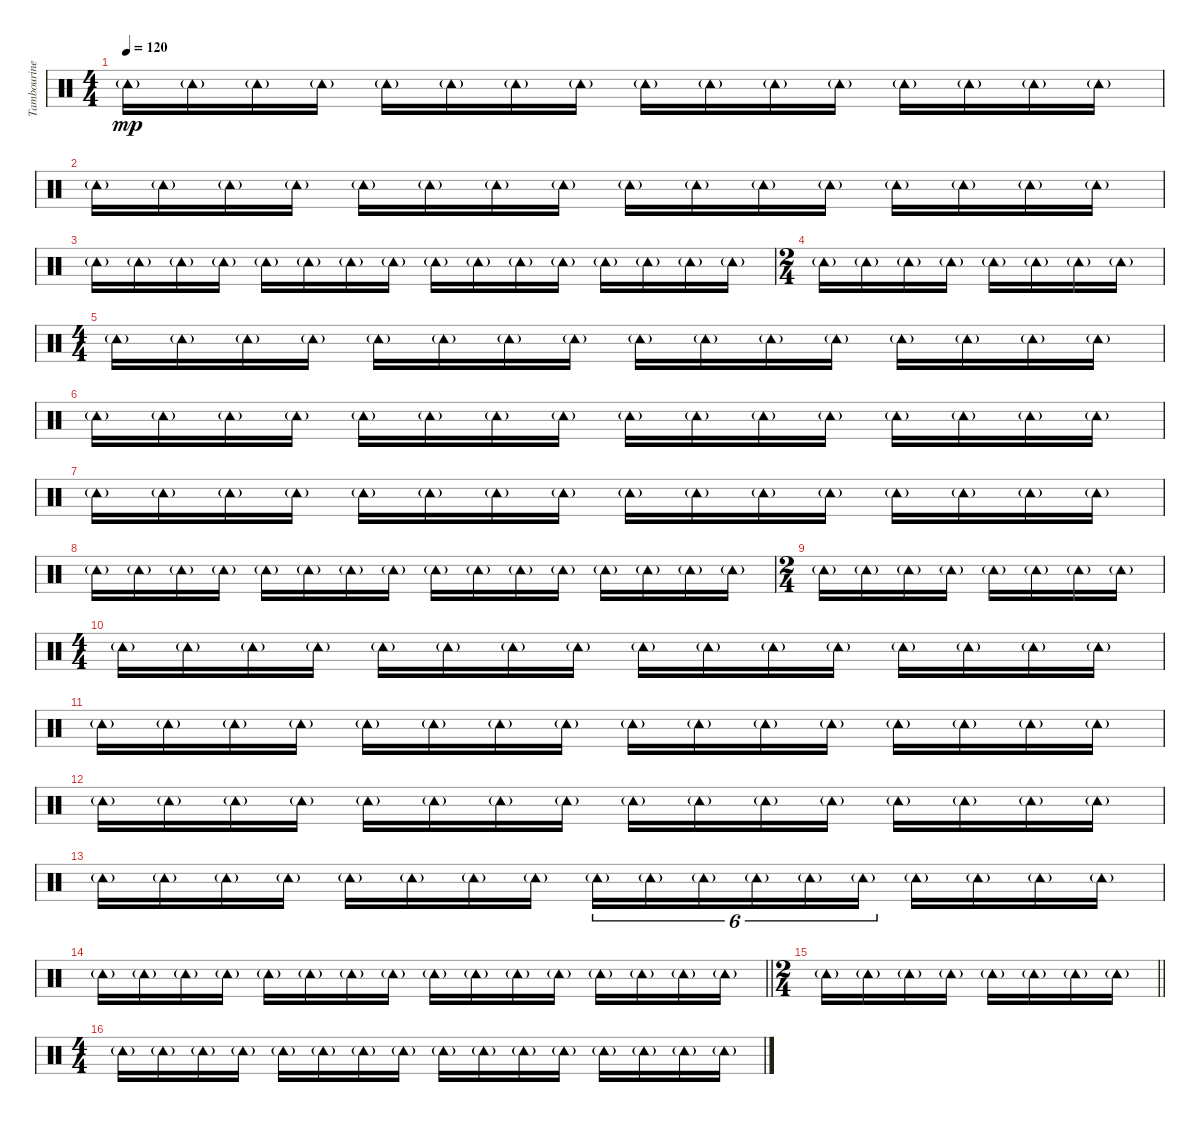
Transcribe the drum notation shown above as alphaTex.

\track ("Tambourine" "Tambourine") {instrument percussion}
\staff {score}
\articulation defaults
\ts (4 4)
\tempo 120
\clef neutral
\ks c "Tambourine (hit)"{g}.16{dy mp} "Tambourine (hit)"{g}.16 "Tambourine (hit)"{g}.16 "Tambourine (hit)"{g}.16 "Tambourine (hit)"{g}.16 "Tambourine (hit)"{g}.16 "Tambourine (hit)"{g}.16 "Tambourine (hit)"{g}.16 "Tambourine (hit)"{g}.16 "Tambourine (hit)"{g}.16 "Tambourine (hit)"{g}.16 "Tambourine (hit)"{g}.16 "Tambourine (hit)"{g}.16 "Tambourine (hit)"{g}.16 "Tambourine (hit)"{g}.16 "Tambourine (hit)"{g}.16
|
"Tambourine (hit)"{g}.16 "Tambourine (hit)"{g}.16 "Tambourine (hit)"{g}.16 "Tambourine (hit)"{g}.16 "Tambourine (hit)"{g}.16 "Tambourine (hit)"{g}.16 "Tambourine (hit)"{g}.16 "Tambourine (hit)"{g}.16 "Tambourine (hit)"{g}.16 "Tambourine (hit)"{g}.16 "Tambourine (hit)"{g}.16 "Tambourine (hit)"{g}.16 "Tambourine (hit)"{g}.16 "Tambourine (hit)"{g}.16 "Tambourine (hit)"{g}.16 "Tambourine (hit)"{g}.16 |
"Tambourine (hit)"{g}.16 "Tambourine (hit)"{g}.16 "Tambourine (hit)"{g}.16 "Tambourine (hit)"{g}.16 "Tambourine (hit)"{g}.16 "Tambourine (hit)"{g}.16 "Tambourine (hit)"{g}.16 "Tambourine (hit)"{g}.16 "Tambourine (hit)"{g}.16 "Tambourine (hit)"{g}.16 "Tambourine (hit)"{g}.16 "Tambourine (hit)"{g}.16 "Tambourine (hit)"{g}.16 "Tambourine (hit)"{g}.16 "Tambourine (hit)"{g}.16 "Tambourine (hit)"{g}.16 |
\ts (2 4)
"Tambourine (hit)"{g}.16 "Tambourine (hit)"{g}.16 "Tambourine (hit)"{g}.16 "Tambourine (hit)"{g}.16 "Tambourine (hit)"{g}.16 "Tambourine (hit)"{g}.16 "Tambourine (hit)"{g}.16 "Tambourine (hit)"{g}.16 |
\ts (4 4)
"Tambourine (hit)"{g}.16 "Tambourine (hit)"{g}.16 "Tambourine (hit)"{g}.16 "Tambourine (hit)"{g}.16 "Tambourine (hit)"{g}.16 "Tambourine (hit)"{g}.16 "Tambourine (hit)"{g}.16 "Tambourine (hit)"{g}.16 "Tambourine (hit)"{g}.16 "Tambourine (hit)"{g}.16 "Tambourine (hit)"{g}.16 "Tambourine (hit)"{g}.16 "Tambourine (hit)"{g}.16 "Tambourine (hit)"{g}.16 "Tambourine (hit)"{g}.16 "Tambourine (hit)"{g}.16 |
"Tambourine (hit)"{g}.16 "Tambourine (hit)"{g}.16 "Tambourine (hit)"{g}.16 "Tambourine (hit)"{g}.16 "Tambourine (hit)"{g}.16 "Tambourine (hit)"{g}.16 "Tambourine (hit)"{g}.16 "Tambourine (hit)"{g}.16 "Tambourine (hit)"{g}.16 "Tambourine (hit)"{g}.16 "Tambourine (hit)"{g}.16 "Tambourine (hit)"{g}.16 "Tambourine (hit)"{g}.16 "Tambourine (hit)"{g}.16 "Tambourine (hit)"{g}.16 "Tambourine (hit)"{g}.16 |
"Tambourine (hit)"{g}.16 "Tambourine (hit)"{g}.16 "Tambourine (hit)"{g}.16 "Tambourine (hit)"{g}.16 "Tambourine (hit)"{g}.16 "Tambourine (hit)"{g}.16 "Tambourine (hit)"{g}.16 "Tambourine (hit)"{g}.16 "Tambourine (hit)"{g}.16 "Tambourine (hit)"{g}.16 "Tambourine (hit)"{g}.16 "Tambourine (hit)"{g}.16 "Tambourine (hit)"{g}.16 "Tambourine (hit)"{g}.16 "Tambourine (hit)"{g}.16 "Tambourine (hit)"{g}.16 |
"Tambourine (hit)"{g}.16 "Tambourine (hit)"{g}.16 "Tambourine (hit)"{g}.16 "Tambourine (hit)"{g}.16 "Tambourine (hit)"{g}.16 "Tambourine (hit)"{g}.16 "Tambourine (hit)"{g}.16 "Tambourine (hit)"{g}.16 "Tambourine (hit)"{g}.16 "Tambourine (hit)"{g}.16 "Tambourine (hit)"{g}.16 "Tambourine (hit)"{g}.16 "Tambourine (hit)"{g}.16 "Tambourine (hit)"{g}.16 "Tambourine (hit)"{g}.16 "Tambourine (hit)"{g}.16 |
\ts (2 4)
"Tambourine (hit)"{g}.16 "Tambourine (hit)"{g}.16 "Tambourine (hit)"{g}.16 "Tambourine (hit)"{g}.16 "Tambourine (hit)"{g}.16 "Tambourine (hit)"{g}.16 "Tambourine (hit)"{g}.16 "Tambourine (hit)"{g}.16 |
\ts (4 4)
"Tambourine (hit)"{g}.16 "Tambourine (hit)"{g}.16 "Tambourine (hit)"{g}.16 "Tambourine (hit)"{g}.16 "Tambourine (hit)"{g}.16 "Tambourine (hit)"{g}.16 "Tambourine (hit)"{g}.16 "Tambourine (hit)"{g}.16 "Tambourine (hit)"{g}.16 "Tambourine (hit)"{g}.16 "Tambourine (hit)"{g}.16 "Tambourine (hit)"{g}.16 "Tambourine (hit)"{g}.16 "Tambourine (hit)"{g}.16 "Tambourine (hit)"{g}.16 "Tambourine (hit)"{g}.16 |
"Tambourine (hit)"{g}.16 "Tambourine (hit)"{g}.16 "Tambourine (hit)"{g}.16 "Tambourine (hit)"{g}.16 "Tambourine (hit)"{g}.16 "Tambourine (hit)"{g}.16 "Tambourine (hit)"{g}.16 "Tambourine (hit)"{g}.16 "Tambourine (hit)"{g}.16 "Tambourine (hit)"{g}.16 "Tambourine (hit)"{g}.16 "Tambourine (hit)"{g}.16 "Tambourine (hit)"{g}.16 "Tambourine (hit)"{g}.16 "Tambourine (hit)"{g}.16 "Tambourine (hit)"{g}.16 |
"Tambourine (hit)"{g}.16 "Tambourine (hit)"{g}.16 "Tambourine (hit)"{g}.16 "Tambourine (hit)"{g}.16 "Tambourine (hit)"{g}.16 "Tambourine (hit)"{g}.16 "Tambourine (hit)"{g}.16 "Tambourine (hit)"{g}.16 "Tambourine (hit)"{g}.16 "Tambourine (hit)"{g}.16 "Tambourine (hit)"{g}.16 "Tambourine (hit)"{g}.16 "Tambourine (hit)"{g}.16 "Tambourine (hit)"{g}.16 "Tambourine (hit)"{g}.16 "Tambourine (hit)"{g}.16 |
"Tambourine (hit)"{g}.16 "Tambourine (hit)"{g}.16 "Tambourine (hit)"{g}.16 "Tambourine (hit)"{g}.16 "Tambourine (hit)"{g}.16 "Tambourine (hit)"{g}.16 "Tambourine (hit)"{g}.16 "Tambourine (hit)"{g}.16 "Tambourine (hit)"{g}.16{tu (6 4)} "Tambourine (hit)"{g}.16{tu (6 4)} "Tambourine (hit)"{g}.16{tu (6 4)} "Tambourine (hit)"{g}.16{tu (6 4)} "Tambourine (hit)"{g}.16{tu (6 4)} "Tambourine (hit)"{g}.16{tu (6 4)} "Tambourine (hit)"{g}.16 "Tambourine (hit)"{g}.16 "Tambourine (hit)"{g}.16 "Tambourine (hit)"{g}.16 |
\barLineRight lightlight "Tambourine (hit)"{g}.16 "Tambourine (hit)"{g}.16 "Tambourine (hit)"{g}.16 "Tambourine (hit)"{g}.16 "Tambourine (hit)"{g}.16 "Tambourine (hit)"{g}.16 "Tambourine (hit)"{g}.16 "Tambourine (hit)"{g}.16 "Tambourine (hit)"{g}.16 "Tambourine (hit)"{g}.16 "Tambourine (hit)"{g}.16 "Tambourine (hit)"{g}.16 "Tambourine (hit)"{g}.16 "Tambourine (hit)"{g}.16 "Tambourine (hit)"{g}.16 "Tambourine (hit)"{g}.16
|
\ts (2 4)
\barLineRight lightlight "Tambourine (hit)"{g}.16 "Tambourine (hit)"{g}.16 "Tambourine (hit)"{g}.16 "Tambourine (hit)"{g}.16 "Tambourine (hit)"{g}.16 "Tambourine (hit)"{g}.16 "Tambourine (hit)"{g}.16 "Tambourine (hit)"{g}.16
|
\ts (4 4)
"Tambourine (hit)"{g}.16 "Tambourine (hit)"{g}.16 "Tambourine (hit)"{g}.16 "Tambourine (hit)"{g}.16 "Tambourine (hit)"{g}.16 "Tambourine (hit)"{g}.16 "Tambourine (hit)"{g}.16 "Tambourine (hit)"{g}.16 "Tambourine (hit)"{g}.16 "Tambourine (hit)"{g}.16 "Tambourine (hit)"{g}.16 "Tambourine (hit)"{g}.16 "Tambourine (hit)"{g}.16 "Tambourine (hit)"{g}.16 "Tambourine (hit)"{g}.16 "Tambourine (hit)"{g}.16
